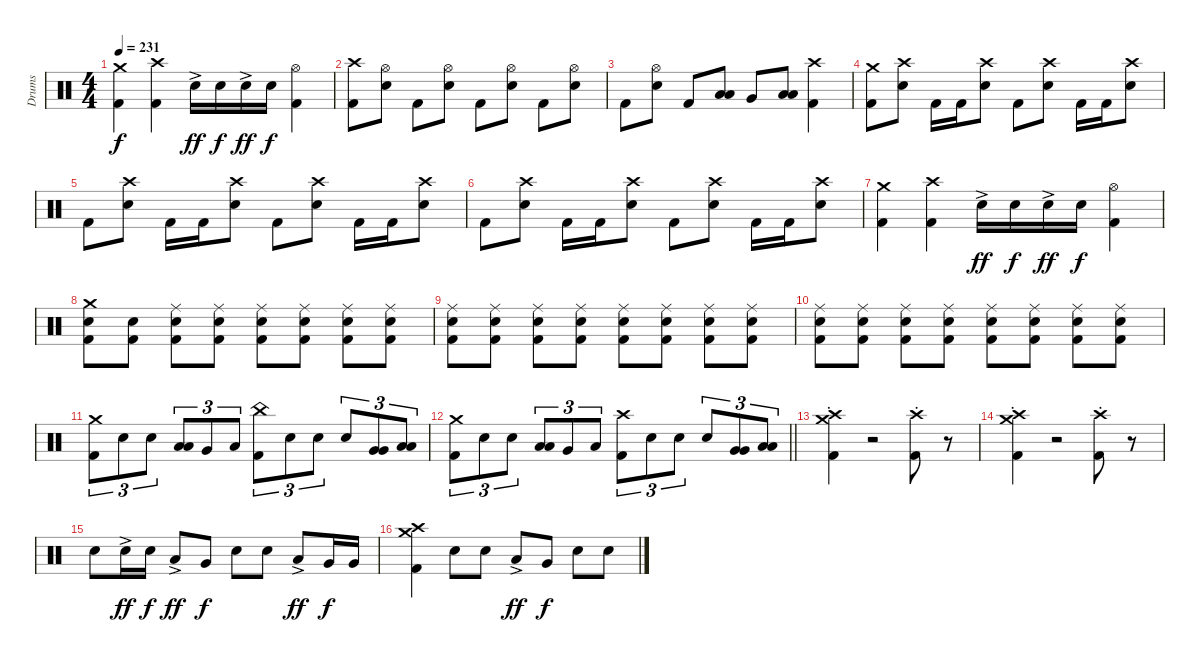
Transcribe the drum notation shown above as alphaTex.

\track ("Drums" "Drums") {instrument percussion}
\staff {score}
\articulation defaults
\ts (4 4)
\tempo 231
\clef neutral
\ks c
("Crash medium (hit)" "Kick (hit) 2").4{dy f} ("Crash high (hit)" "Kick (hit) 2").4 "Electric Snare (hit)"{ac}.16{dy ff} "Electric Snare (hit)".16{dy f} "Electric Snare (hit)"{ac}.16{dy ff} "Electric Snare (hit)".16{dy f} ("Hi-Hat (open)" "Kick (hit) 2").4 |
("Crash high (hit)" "Kick (hit) 2").8 ("Hi-Hat (open)" "Electric Snare (hit)").8 "Kick (hit) 2".8 ("Hi-Hat (open)" "Electric Snare (hit)").8 "Kick (hit) 2".8 ("Hi-Hat (open)" "Electric Snare (hit)").8 "Kick (hit) 2".8 ("Hi-Hat (open)" "Electric Snare (hit)").8 |
"Kick (hit) 2".8 ("Hi-Hat (open)" "Electric Snare (hit)").8 "Kick (hit) 2".8 ("Low Tom (hit)" "Low Tom (hit)").8{bu 60} "Very Low Tom (hit)".8 ("Low Floor Tom (hit)" "Low Floor Tom (hit)").8{bu 60} ("Crash high (hit)" "Kick (hit) 2").4 |
("Crash medium (hit)" "Kick (hit) 2").8 ("Crash high (hit)" "Electric Snare (hit)").8 "Kick (hit) 2".16 "Kick (hit) 2".16 ("Crash high (hit)" "Electric Snare (hit)").8 "Kick (hit) 2".8 ("Crash high (hit)" "Electric Snare (hit)").8 "Kick (hit) 2".16 "Kick (hit) 2".16 ("Crash high (hit)" "Electric Snare (hit)").8 |
"Kick (hit) 2".8 ("Crash high (hit)" "Electric Snare (hit)").8 "Kick (hit) 2".16 "Kick (hit) 2".16 ("Crash high (hit)" "Electric Snare (hit)").8 "Kick (hit) 2".8 ("Crash high (hit)" "Electric Snare (hit)").8 "Kick (hit) 2".16 "Kick (hit) 2".16 ("Crash high (hit)" "Electric Snare (hit)").8 |
"Kick (hit) 2".8 ("Crash high (hit)" "Electric Snare (hit)").8 "Kick (hit) 2".16 "Kick (hit) 2".16 ("Crash high (hit)" "Electric Snare (hit)").8 "Kick (hit) 2".8 ("Crash high (hit)" "Electric Snare (hit)").8 "Kick (hit) 2".16 "Kick (hit) 2".16 ("Crash high (hit)" "Electric Snare (hit)").8 |
("Crash medium (hit)" "Kick (hit) 2").4 ("Crash high (hit)" "Kick (hit) 2").4 "Electric Snare (hit)"{ac}.16{dy ff} "Electric Snare (hit)".16{dy f} "Electric Snare (hit)"{ac}.16{dy ff} "Electric Snare (hit)".16{dy f} ("Hi-Hat (open)" "Kick (hit) 2").4 |
("Crash medium (hit)" "Electric Snare (hit)" "Kick (hit) 2").8 ("Electric Snare (hit)" "Kick (hit) 2").8 ("Ride (middle)" "Electric Snare (hit)" "Kick (hit) 2").8 ("Ride (middle)" "Electric Snare (hit)" "Kick (hit) 2").8 ("Ride (middle)" "Electric Snare (hit)" "Kick (hit) 2").8 ("Ride (middle)" "Electric Snare (hit)" "Kick (hit) 2").8 ("Ride (middle)" "Electric Snare (hit)" "Kick (hit) 2").8 ("Ride (middle)" "Electric Snare (hit)" "Kick (hit) 2").8 |
("Ride (middle)" "Electric Snare (hit)" "Kick (hit) 2").8 ("Ride (middle)" "Electric Snare (hit)" "Kick (hit) 2").8 ("Ride (middle)" "Electric Snare (hit)" "Kick (hit) 2").8 ("Ride (middle)" "Electric Snare (hit)" "Kick (hit) 2").8 ("Ride (middle)" "Electric Snare (hit)" "Kick (hit) 2").8 ("Ride (middle)" "Electric Snare (hit)" "Kick (hit) 2").8 ("Ride (middle)" "Electric Snare (hit)" "Kick (hit) 2").8 ("Ride (middle)" "Electric Snare (hit)" "Kick (hit) 2").8 |
("Ride (middle)" "Electric Snare (hit)" "Kick (hit) 2").8 ("Ride (middle)" "Electric Snare (hit)" "Kick (hit) 2").8 ("Ride (middle)" "Electric Snare (hit)" "Kick (hit) 2").8 ("Ride (middle)" "Electric Snare (hit)" "Kick (hit) 2").8 ("Ride (middle)" "Electric Snare (hit)" "Kick (hit) 2").8 ("Ride (middle)" "Electric Snare (hit)" "Kick (hit) 2").8 ("Ride (middle)" "Electric Snare (hit)" "Kick (hit) 2").8 ("Ride (middle)" "Electric Snare (hit)" "Kick (hit) 2").8 |
("Crash medium (hit)" "Kick (hit) 2").8{tu (3 2)} "Electric Snare (hit)".8{tu (3 2)} "Electric Snare (hit)".8{tu (3 2)} ("Low Tom (hit)" "Low Tom (hit)").8{tu (3 2) bu 60} "Very Low Tom (hit)".8{tu (3 2)} "Low Floor Tom (hit)".8{tu (3 2)} ("China (hit)" "Kick (hit) 2").8{tu (3 2)} "Electric Snare (hit)".8{tu (3 2)} "Electric Snare (hit)".8{tu (3 2)} "Electric Snare (hit)".8{tu (3 2)} ("Very Low Tom (hit)" "Very Low Tom (hit)").8{tu (3 2) bu 60} ("Low Floor Tom (hit)" "Low Floor Tom (hit)").8{tu (3 2) bu 60} |
\barLineRight lightlight
("Crash medium (hit)" "Kick (hit) 2").8{tu (3 2)} "Electric Snare (hit)".8{tu (3 2)} "Electric Snare (hit)".8{tu (3 2)} ("Low Tom (hit)" "Low Tom (hit)").8{tu (3 2) bu 60} "Very Low Tom (hit)".8{tu (3 2)} "Low Floor Tom (hit)".8{tu (3 2)} ("Crash high (hit)" "Kick (hit) 2").8{tu (3 2)} "Electric Snare (hit)".8{tu (3 2)} "Electric Snare (hit)".8{tu (3 2)} "Electric Snare (hit)".8{tu (3 2)} ("Very Low Tom (hit)" "Very Low Tom (hit)").8{tu (3 2) bu 60} ("Low Floor Tom (hit)" "Low Floor Tom (hit)").8{tu (3 2) bu 60} |
\section ("" "")
("Crash medium (hit)"{st} "Crash high (hit)"{st} "Kick (hit) 2").4 r.2{volume 0} ("Crash high (hit)"{st} "Kick (hit) 2").8{volume 14} r.8{volume 0} |
("Crash medium (hit)"{st} "Crash high (hit)"{st} "Kick (hit) 2").4{volume 14} r.2{volume 0} ("Crash high (hit)"{st} "Kick (hit) 2").8{volume 14} r.8{volume 0} |
"Electric Snare (hit)".8{volume 14} "Electric Snare (hit)"{ac}.16{dy ff} "Electric Snare (hit)".16{dy f} "Low Tom (hit)"{ac}.8{dy ff} "Very Low Tom (hit)".8{dy f} "Electric Snare (hit)".8 "Electric Snare (hit)".8 "Low Tom (hit)"{ac}.8{dy ff} "Very Low Tom (hit)".16{dy f} "Very Low Tom (hit)".16 |
("Crash medium (hit)" "Crash high (hit)" "Kick (hit) 2").4 "Electric Snare (hit)".8 "Electric Snare (hit)".8 "Low Tom (hit)"{ac}.8{dy ff} "Very Low Tom (hit)".8{dy f} "Electric Snare (hit)".8 "Electric Snare (hit)".8
